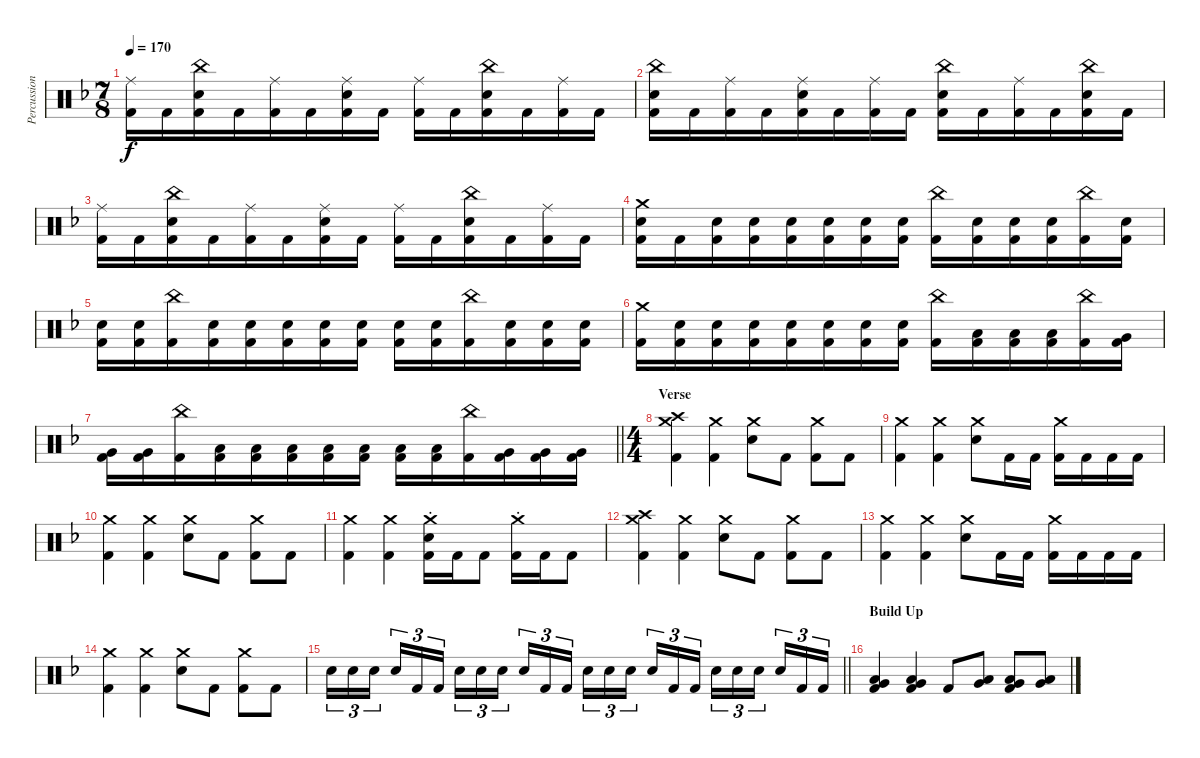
\track ("Percussion" "Percussion") {instrument percussion}
\staff {score}
\articulation defaults
\ts (7 8)
\tempo 170
\clef neutral
\ks dminor
("Ride (middle)" "Kick (hit) 2").16{dy f} "Kick (hit) 2".16 ("China (hit)" "Electric Snare (hit)" "Kick (hit) 2").16 "Kick (hit) 2".16 ("Ride (middle)" "Kick (hit) 2").16 "Kick (hit) 2".16 ("Ride (middle)" "Electric Snare (hit)" "Kick (hit) 2").16 "Kick (hit) 2".16 ("Ride (middle)" "Kick (hit) 2").16 "Kick (hit) 2".16 ("China (hit)" "Electric Snare (hit)" "Kick (hit) 2").16 "Kick (hit) 2".16 ("Ride (middle)" "Kick (hit) 2").16 "Kick (hit) 2".16 |
("China (hit)" "Electric Snare (hit)" "Kick (hit) 2").16 "Kick (hit) 2".16 ("Ride (middle)" "Kick (hit) 2").16 "Kick (hit) 2".16 ("Ride (middle)" "Electric Snare (hit)" "Kick (hit) 2").16 "Kick (hit) 2".16 ("Ride (middle)" "Kick (hit) 2").16 "Kick (hit) 2".16 ("China (hit)" "Electric Snare (hit)" "Kick (hit) 2").16 "Kick (hit) 2".16 ("Ride (middle)" "Kick (hit) 2").16 "Kick (hit) 2".16 ("China (hit)" "Electric Snare (hit)" "Kick (hit) 2").16 "Kick (hit) 2".16 |
("Ride (middle)" "Kick (hit) 2").16 "Kick (hit) 2".16 ("China (hit)" "Electric Snare (hit)" "Kick (hit) 2").16 "Kick (hit) 2".16 ("Ride (middle)" "Kick (hit) 2").16 "Kick (hit) 2".16 ("Ride (middle)" "Electric Snare (hit)" "Kick (hit) 2").16 "Kick (hit) 2".16 ("Ride (middle)" "Kick (hit) 2").16 "Kick (hit) 2".16 ("China (hit)" "Electric Snare (hit)" "Kick (hit) 2").16 "Kick (hit) 2".16 ("Ride (middle)" "Kick (hit) 2").16 "Kick (hit) 2".16 |
("Crash medium (hit)" "Electric Snare (hit)" "Kick (hit) 2").16 "Kick (hit) 2".16 ("Electric Snare (hit)" "Kick (hit) 2").16 ("Electric Snare (hit)" "Kick (hit) 2").16 ("Electric Snare (hit)" "Kick (hit) 2").16 ("Electric Snare (hit)" "Kick (hit) 2").16 ("Electric Snare (hit)" "Kick (hit) 2").16 ("Electric Snare (hit)" "Kick (hit) 2").16 ("China (hit)" "Kick (hit) 2").16 ("Electric Snare (hit)" "Kick (hit) 2").16 ("Electric Snare (hit)" "Kick (hit) 2").16 ("Electric Snare (hit)" "Kick (hit) 2").16 ("China (hit)" "Kick (hit) 2").16 ("Electric Snare (hit)" "Kick (hit) 2").16 |
("Electric Snare (hit)" "Kick (hit) 2").16 ("Electric Snare (hit)" "Kick (hit) 2").16 ("China (hit)" "Kick (hit) 2").16 ("Electric Snare (hit)" "Kick (hit) 2").16 ("Electric Snare (hit)" "Kick (hit) 2").16 ("Electric Snare (hit)" "Kick (hit) 2").16 ("Electric Snare (hit)" "Kick (hit) 2").16 ("Electric Snare (hit)" "Kick (hit) 2").16 ("Electric Snare (hit)" "Kick (hit) 2").16 ("Electric Snare (hit)" "Kick (hit) 2").16 ("China (hit)" "Kick (hit) 2").16 ("Electric Snare (hit)" "Kick (hit) 2").16 ("Electric Snare (hit)" "Kick (hit) 2").16 ("Electric Snare (hit)" "Kick (hit) 2").16 |
("Crash medium (hit)" "Kick (hit) 2").16 ("Electric Snare (hit)" "Kick (hit) 2").16 ("Electric Snare (hit)" "Kick (hit) 2").16 ("Electric Snare (hit)" "Kick (hit) 2").16 ("Electric Snare (hit)" "Kick (hit) 2").16 ("Electric Snare (hit)" "Kick (hit) 2").16 ("Electric Snare (hit)" "Kick (hit) 2").16 ("Electric Snare (hit)" "Kick (hit) 2").16 ("China (hit)" "Kick (hit) 2").16 ("Low Tom (hit)" "Kick (hit) 2").16 ("Low Tom (hit)" "Kick (hit) 2").16 ("Low Tom (hit)" "Kick (hit) 2").16 ("China (hit)" "Kick (hit) 2").16 ("Very Low Tom (hit)" "Kick (hit) 2").16 |
\barLineRight lightlight
("Very Low Tom (hit)" "Kick (hit) 2").16 ("Very Low Tom (hit)" "Kick (hit) 2").16 ("China (hit)" "Kick (hit) 2").16 ("Low Floor Tom (hit)" "Kick (hit) 2").16 ("Low Floor Tom (hit)" "Kick (hit) 2").16 ("Low Floor Tom (hit)" "Kick (hit) 2").16 ("Low Floor Tom (hit)" "Kick (hit) 2").16 ("Low Floor Tom (hit)" "Kick (hit) 2").16 ("Low Floor Tom (hit)" "Kick (hit) 2").16 ("Low Floor Tom (hit)" "Kick (hit) 2").16 ("China (hit)" "Kick (hit) 2").16 ("Very Low Tom (hit)" "Kick (hit) 2").16 ("Very Low Tom (hit)" "Kick (hit) 2").16 ("Very Low Tom (hit)" "Kick (hit) 2").16 |
\ts (4 4)
\section ("" "Verse")
("Crash medium (hit)" "Crash high (hit)" "Kick (hit) 2").4 ("Crash medium (hit)" "Kick (hit) 2").4 ("Crash medium (hit)" "Electric Snare (hit)").8 "Kick (hit) 2".8 ("Crash medium (hit)" "Kick (hit) 2").8 "Kick (hit) 2".8 |
("Crash medium (hit)" "Kick (hit) 2").4 ("Crash medium (hit)" "Kick (hit) 2").4 ("Crash medium (hit)" "Electric Snare (hit)").8 "Kick (hit) 2".16 "Kick (hit) 2".16 ("Crash medium (hit)" "Kick (hit) 2").16 "Kick (hit) 2".16 "Kick (hit) 2".16 "Kick (hit) 2".16 |
("Crash medium (hit)" "Kick (hit) 2").4 ("Crash medium (hit)" "Kick (hit) 2").4 ("Crash medium (hit)" "Electric Snare (hit)").8 "Kick (hit) 2".8 ("Crash medium (hit)" "Kick (hit) 2").8 "Kick (hit) 2".8 |
("Crash medium (hit)" "Kick (hit) 2").4 ("Crash medium (hit)" "Kick (hit) 2").4 ("Crash medium (hit)"{st} "Electric Snare (hit)" "Kick (hit) 2").16 "Kick (hit) 2".16 "Kick (hit) 2".8 ("Crash medium (hit)"{st} "Kick (hit) 2").16 "Kick (hit) 2".16 "Kick (hit) 2".8 |
("Crash medium (hit)" "Crash high (hit)" "Kick (hit) 2").4 ("Crash medium (hit)" "Kick (hit) 2").4 ("Crash medium (hit)" "Electric Snare (hit)").8 "Kick (hit) 2".8 ("Crash medium (hit)" "Kick (hit) 2").8 "Kick (hit) 2".8 |
("Crash medium (hit)" "Kick (hit) 2").4 ("Crash medium (hit)" "Kick (hit) 2").4 ("Crash medium (hit)" "Electric Snare (hit)").8 "Kick (hit) 2".16 "Kick (hit) 2".16 ("Crash medium (hit)" "Kick (hit) 2").16 "Kick (hit) 2".16 "Kick (hit) 2".16 "Kick (hit) 2".16 |
("Crash medium (hit)" "Kick (hit) 2").4 ("Crash medium (hit)" "Kick (hit) 2").4 ("Crash medium (hit)" "Electric Snare (hit)").8 "Kick (hit) 2".8 ("Crash medium (hit)" "Kick (hit) 2").8 "Kick (hit) 2".8 |
\barLineRight lightlight "Electric Snare (hit)".16{tu (3 2)} "Electric Snare (hit)".16{tu (3 2)} "Electric Snare (hit)".16{tu (3 2) beam splitsecondary} "Electric Snare (hit)".16{tu (3 2)} "Kick (hit) 2".16{tu (3 2)} "Kick (hit) 2".16{tu (3 2)} "Electric Snare (hit)".16{tu (3 2)} "Electric Snare (hit)".16{tu (3 2)} "Electric Snare (hit)".16{tu (3 2) beam splitsecondary} "Electric Snare (hit)".16{tu (3 2)} "Kick (hit) 2".16{tu (3 2)} "Kick (hit) 2".16{tu (3 2)} "Electric Snare (hit)".16{tu (3 2)} "Electric Snare (hit)".16{tu (3 2)} "Electric Snare (hit)".16{tu (3 2) beam splitsecondary} "Electric Snare (hit)".16{tu (3 2)} "Kick (hit) 2".16{tu (3 2)} "Kick (hit) 2".16{tu (3 2)} "Electric Snare (hit)".16{tu (3 2)} "Electric Snare (hit)".16{tu (3 2)} "Electric Snare (hit)".16{tu (3 2) beam splitsecondary} "Electric Snare (hit)".16{tu (3 2)} "Kick (hit) 2".16{tu (3 2)} "Kick (hit) 2".16{tu (3 2)}
|
\section ("" "Build Up")
("Very Low Tom (hit)" "Low Floor Tom (hit)" "Kick (hit) 2").4 ("Very Low Tom (hit)" "Low Floor Tom (hit)" "Kick (hit) 2").4 "Kick (hit) 2".8 ("Very Low Tom (hit)" "Low Floor Tom (hit)").8 ("Very Low Tom (hit)" "Low Floor Tom (hit)" "Kick (hit) 2").8 ("Very Low Tom (hit)" "Low Floor Tom (hit)").8
